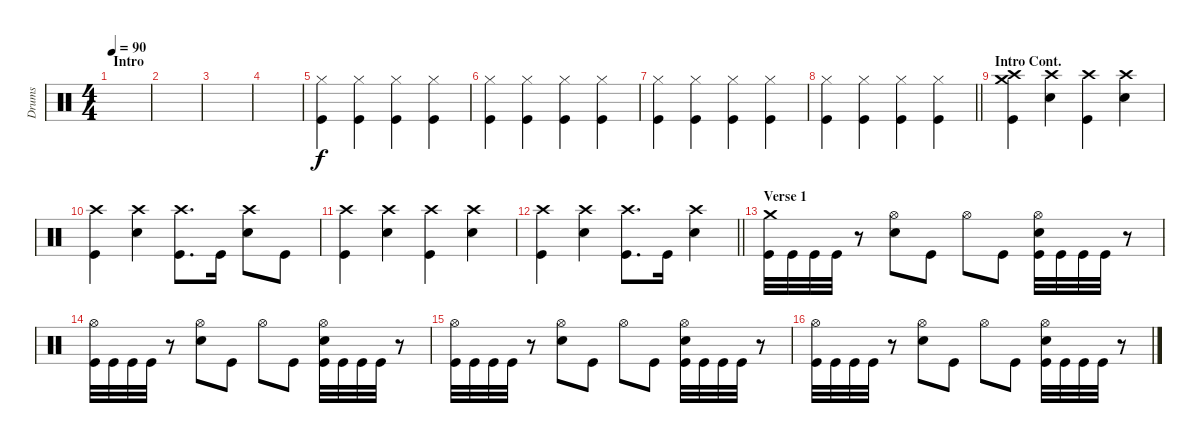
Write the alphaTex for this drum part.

\track ("Drums" "Drums") {instrument percussion}
\staff {score}
\articulation defaults
\ts (4 4)
\section ("" "Intro")
\tempo 90
\clef neutral
\ks c
|
|
|
|
("Hi-Hat (closed)" "Kick (hit)").4 ("Hi-Hat (closed)" "Kick (hit)").4 ("Hi-Hat (closed)" "Kick (hit)").4 ("Hi-Hat (closed)" "Kick (hit)").4 |
("Hi-Hat (closed)" "Kick (hit)").4 ("Hi-Hat (closed)" "Kick (hit)").4 ("Hi-Hat (closed)" "Kick (hit)").4 ("Hi-Hat (closed)" "Kick (hit)").4 |
("Hi-Hat (closed)" "Kick (hit)").4 ("Hi-Hat (closed)" "Kick (hit)").4 ("Hi-Hat (closed)" "Kick (hit)").4 ("Hi-Hat (closed)" "Kick (hit)").4 |
\barLineRight lightlight
("Hi-Hat (closed)" "Kick (hit)").4 ("Hi-Hat (closed)" "Kick (hit)").4 ("Hi-Hat (closed)" "Kick (hit)").4 ("Hi-Hat (closed)" "Kick (hit)").4 |
\section ("" "Intro Cont.")
("Crash medium (hit)" "Crash high (hit)" "Kick (hit)").4 ("Crash high (hit)" "Electric Snare (hit)").4 ("Crash high (hit)" "Kick (hit)").4 ("Crash high (hit)" "Electric Snare (hit)").4 |
("Crash high (hit)" "Kick (hit)").4 ("Crash high (hit)" "Electric Snare (hit)").4 ("Crash high (hit)" "Kick (hit)").8{d} "Kick (hit)".16 ("Crash high (hit)" "Electric Snare (hit)").8 "Kick (hit)".8 |
("Crash high (hit)" "Kick (hit)").4 ("Crash high (hit)" "Electric Snare (hit)").4 ("Crash high (hit)" "Kick (hit)").4 ("Crash high (hit)" "Electric Snare (hit)").4 |
\barLineRight lightlight
("Crash high (hit)" "Kick (hit)").4 ("Crash high (hit)" "Electric Snare (hit)").4 ("Crash high (hit)" "Kick (hit)").8{d} "Kick (hit)".16 ("Crash high (hit)" "Electric Snare (hit)").4 |
\section ("" "Verse 1")
("Crash medium (hit)" "Kick (hit)").32 "Kick (hit)".32 "Kick (hit)".32 "Kick (hit)".32 r.8 ("Hi-Hat (open)" "Electric Snare (hit)").8 "Kick (hit)".8 "Hi-Hat (open)".8 "Kick (hit)".8 ("Hi-Hat (open)" "Electric Snare (hit)" "Kick (hit)").32 "Kick (hit)".32 "Kick (hit)".32 "Kick (hit)".32 r.8 |
("Hi-Hat (open)" "Kick (hit)").32 "Kick (hit)".32 "Kick (hit)".32 "Kick (hit)".32 r.8 ("Hi-Hat (open)" "Electric Snare (hit)").8 "Kick (hit)".8 "Hi-Hat (open)".8 "Kick (hit)".8 ("Hi-Hat (open)" "Electric Snare (hit)" "Kick (hit)").32 "Kick (hit)".32 "Kick (hit)".32 "Kick (hit)".32 r.8 |
("Hi-Hat (open)" "Kick (hit)").32 "Kick (hit)".32 "Kick (hit)".32 "Kick (hit)".32 r.8 ("Hi-Hat (open)" "Electric Snare (hit)").8 "Kick (hit)".8 "Hi-Hat (open)".8 "Kick (hit)".8 ("Hi-Hat (open)" "Electric Snare (hit)" "Kick (hit)").32 "Kick (hit)".32 "Kick (hit)".32 "Kick (hit)".32 r.8 |
("Hi-Hat (open)" "Kick (hit)").32 "Kick (hit)".32 "Kick (hit)".32 "Kick (hit)".32 r.8 ("Hi-Hat (open)" "Electric Snare (hit)").8 "Kick (hit)".8 "Hi-Hat (open)".8 "Kick (hit)".8 ("Hi-Hat (open)" "Electric Snare (hit)" "Kick (hit)").32 "Kick (hit)".32 "Kick (hit)".32 "Kick (hit)".32 r.8
